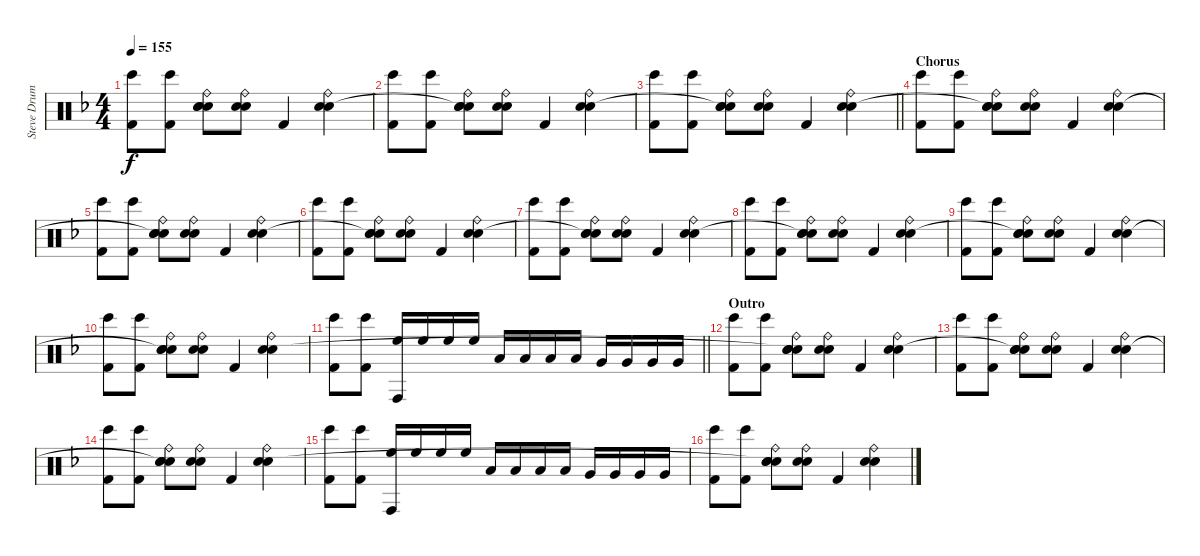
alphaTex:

\track ("Steve Drums" "Steve Drum") {instrument percussion}
\staff {score}
\articulation defaults
\ts (4 4)
\tempo 155
\clef neutral
\ks f
("Bongo High (hit)" "Kick (hit) 2").8{dy f} ("Bongo High (hit)" "Kick (hit) 2").8 ("Ride (bell)" "Snare (hit) 2" "Snare (hit)"{t} "Electric Snare (hit)").8 ("Ride (bell)" "Snare (hit) 2" "Electric Snare (hit)").8 "Kick (hit) 2".4 ("Ride (bell)" "Snare (hit) 2" "Electric Snare (hit)").4 |
("Bongo High (hit)" "Kick (hit) 2").8 ("Bongo High (hit)" "Kick (hit) 2").8 ("Ride (bell)" "Snare (hit) 2" "Snare (hit)"{t} "Electric Snare (hit)").8 ("Ride (bell)" "Snare (hit) 2" "Electric Snare (hit)").8 "Kick (hit) 2".4 ("Ride (bell)" "Snare (hit) 2" "Electric Snare (hit)").4 |
\barLineRight lightlight
("Bongo High (hit)" "Kick (hit) 2").8 ("Bongo High (hit)" "Kick (hit) 2").8 ("Ride (bell)" "Snare (hit) 2" "Snare (hit)"{t} "Electric Snare (hit)").8 ("Ride (bell)" "Snare (hit) 2" "Electric Snare (hit)").8 "Kick (hit) 2".4 ("Ride (bell)" "Snare (hit) 2" "Electric Snare (hit)").4 |
\section ("" "Chorus")
("Bongo High (hit)" "Kick (hit) 2").8 ("Bongo High (hit)" "Kick (hit) 2").8 ("Ride (bell)" "Snare (hit) 2" "Snare (hit)"{t} "Electric Snare (hit)").8 ("Ride (bell)" "Snare (hit) 2" "Electric Snare (hit)").8 "Kick (hit) 2".4 ("Ride (bell)" "Snare (hit) 2" "Electric Snare (hit)").4 |
("Bongo High (hit)" "Kick (hit) 2").8 ("Bongo High (hit)" "Kick (hit) 2").8 ("Ride (bell)" "Snare (hit) 2" "Snare (hit)"{t} "Electric Snare (hit)").8 ("Ride (bell)" "Snare (hit) 2" "Electric Snare (hit)").8 "Kick (hit) 2".4 ("Ride (bell)" "Snare (hit) 2" "Electric Snare (hit)").4 |
("Bongo High (hit)" "Kick (hit) 2").8 ("Bongo High (hit)" "Kick (hit) 2").8 ("Ride (bell)" "Snare (hit) 2" "Snare (hit)"{t} "Electric Snare (hit)").8 ("Ride (bell)" "Snare (hit) 2" "Electric Snare (hit)").8 "Kick (hit) 2".4 ("Ride (bell)" "Snare (hit) 2" "Electric Snare (hit)").4 |
("Bongo High (hit)" "Kick (hit) 2").8 ("Bongo High (hit)" "Kick (hit) 2").8 ("Ride (bell)" "Snare (hit) 2" "Snare (hit)"{t} "Electric Snare (hit)").8 ("Ride (bell)" "Snare (hit) 2" "Electric Snare (hit)").8 "Kick (hit) 2".4 ("Ride (bell)" "Snare (hit) 2" "Electric Snare (hit)").4 |
("Bongo High (hit)" "Kick (hit) 2").8 ("Bongo High (hit)" "Kick (hit) 2").8 ("Ride (bell)" "Snare (hit) 2" "Snare (hit)"{t} "Electric Snare (hit)").8 ("Ride (bell)" "Snare (hit) 2" "Electric Snare (hit)").8 "Kick (hit) 2".4 ("Ride (bell)" "Snare (hit) 2" "Electric Snare (hit)").4 |
("Bongo High (hit)" "Kick (hit) 2").8 ("Bongo High (hit)" "Kick (hit) 2").8 ("Ride (bell)" "Snare (hit) 2" "Snare (hit)"{t} "Electric Snare (hit)").8 ("Ride (bell)" "Snare (hit) 2" "Electric Snare (hit)").8 "Kick (hit) 2".4 ("Ride (bell)" "Snare (hit) 2" "Electric Snare (hit)").4 |
("Bongo High (hit)" "Kick (hit) 2").8 ("Bongo High (hit)" "Kick (hit) 2").8 ("Ride (bell)" "Snare (hit) 2" "Snare (hit)"{t} "Electric Snare (hit)").8 ("Ride (bell)" "Snare (hit) 2" "Electric Snare (hit)").8 "Kick (hit) 2".4 ("Ride (bell)" "Snare (hit) 2" "Electric Snare (hit)").4 |
\barLineRight lightlight
("Bongo High (hit)" "Kick (hit) 2").8 ("Bongo High (hit)" "Kick (hit) 2").8 ("Conga high (hit)" "High Floor Tom (hit)").16 "High Floor Tom (hit)".16 "High Floor Tom (hit)".16 "High Floor Tom (hit)".16 "Low Tom (hit)".16 "Low Tom (hit)".16 "Low Tom (hit)".16 "Low Tom (hit)".16 "Very Low Tom (hit)".16 "Very Low Tom (hit)".16 "Very Low Tom (hit)".16 "Very Low Tom (hit)".16 |
\section ("" "Outro")
("Bongo High (hit)" "Kick (hit) 2").8 ("Bongo High (hit)" "Kick (hit) 2").8 ("Ride (bell)" "Snare (hit) 2" "Snare (hit)"{t} "Electric Snare (hit)").8 ("Ride (bell)" "Snare (hit) 2" "Electric Snare (hit)").8 "Kick (hit) 2".4 ("Ride (bell)" "Snare (hit) 2" "Electric Snare (hit)").4 |
("Bongo High (hit)" "Kick (hit) 2").8 ("Bongo High (hit)" "Kick (hit) 2").8 ("Ride (bell)" "Snare (hit) 2" "Snare (hit)"{t} "Electric Snare (hit)").8 ("Ride (bell)" "Snare (hit) 2" "Electric Snare (hit)").8 "Kick (hit) 2".4 ("Ride (bell)" "Snare (hit) 2" "Electric Snare (hit)").4 |
("Bongo High (hit)" "Kick (hit) 2").8 ("Bongo High (hit)" "Kick (hit) 2").8 ("Ride (bell)" "Snare (hit) 2" "Snare (hit)"{t} "Electric Snare (hit)").8 ("Ride (bell)" "Snare (hit) 2" "Electric Snare (hit)").8 "Kick (hit) 2".4 ("Ride (bell)" "Snare (hit) 2" "Electric Snare (hit)").4 |
("Bongo High (hit)" "Kick (hit) 2").8 ("Bongo High (hit)" "Kick (hit) 2").8 ("Conga high (hit)" "High Floor Tom (hit)").16 "High Floor Tom (hit)".16 "High Floor Tom (hit)".16 "High Floor Tom (hit)".16 "Low Tom (hit)".16 "Low Tom (hit)".16 "Low Tom (hit)".16 "Low Tom (hit)".16 "Very Low Tom (hit)".16 "Very Low Tom (hit)".16 "Very Low Tom (hit)".16 "Very Low Tom (hit)".16 |
("Bongo High (hit)" "Kick (hit) 2").8 ("Bongo High (hit)" "Kick (hit) 2").8 ("Ride (bell)" "Snare (hit) 2" "Snare (hit)"{t} "Electric Snare (hit)").8 ("Ride (bell)" "Snare (hit) 2" "Electric Snare (hit)").8 "Kick (hit) 2".4 ("Ride (bell)" "Snare (hit) 2" "Electric Snare (hit)").4
